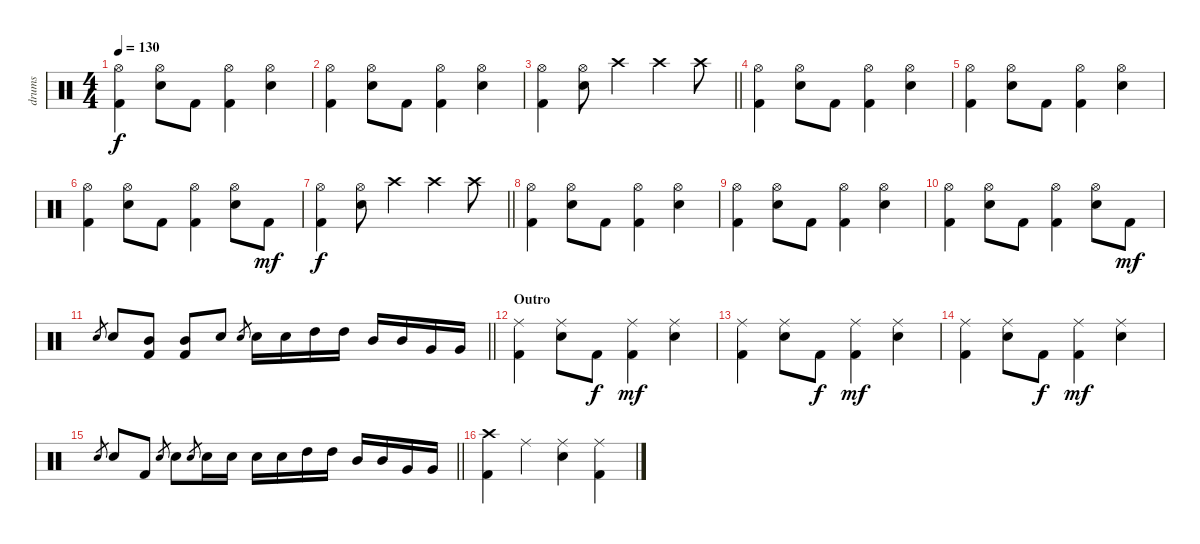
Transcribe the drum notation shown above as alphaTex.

\track ("drums" "drums") {instrument percussion}
\staff {score}
\articulation defaults
\ts (4 4)
\tempo 130
\clef neutral
\ks c
("Hi-Hat (open)" "Kick (hit) 2").4{dy f} ("Hi-Hat (open)" "Snare (hit) 2").8 "Kick (hit) 2".8 ("Hi-Hat (open)" "Kick (hit) 2").4 ("Hi-Hat (open)" "Snare (hit) 2").4 |
("Hi-Hat (open)" "Kick (hit) 2").4 ("Hi-Hat (open)" "Snare (hit) 2").8 "Kick (hit) 2".8 ("Hi-Hat (open)" "Kick (hit) 2").4 ("Hi-Hat (open)" "Snare (hit) 2").4 |
\barLineRight lightlight
("Hi-Hat (open)" "Kick (hit) 2").4 ("Hi-Hat (open)" "Snare (hit) 2").8 "Crash high (hit)".4 "Crash high (hit)".4 "Crash high (hit)".8 |
("Hi-Hat (open)" "Kick (hit) 2").4 ("Hi-Hat (open)" "Snare (hit) 2").8 "Kick (hit) 2".8 ("Hi-Hat (open)" "Kick (hit) 2").4 ("Hi-Hat (open)" "Snare (hit) 2").4 |
("Hi-Hat (open)" "Kick (hit) 2").4 ("Hi-Hat (open)" "Snare (hit) 2").8 "Kick (hit) 2".8 ("Hi-Hat (open)" "Kick (hit) 2").4 ("Hi-Hat (open)" "Snare (hit) 2").4 |
("Hi-Hat (open)" "Kick (hit) 2").4 ("Hi-Hat (open)" "Snare (hit) 2").8 "Kick (hit) 2".8 ("Hi-Hat (open)" "Kick (hit) 2").4 ("Hi-Hat (open)" "Snare (hit) 2").8 "Kick (hit) 2".8{dy mf} |
\barLineRight lightlight
("Hi-Hat (open)" "Kick (hit) 2").4{dy f} ("Hi-Hat (open)" "Snare (hit) 2").8 "Crash high (hit)".4 "Crash high (hit)".4 "Crash high (hit)".8 |
("Hi-Hat (open)" "Kick (hit) 2").4 ("Hi-Hat (open)" "Snare (hit) 2").8 "Kick (hit) 2".8 ("Hi-Hat (open)" "Kick (hit) 2").4 ("Hi-Hat (open)" "Snare (hit) 2").4 |
("Hi-Hat (open)" "Kick (hit) 2").4 ("Hi-Hat (open)" "Snare (hit) 2").8 "Kick (hit) 2".8 ("Hi-Hat (open)" "Kick (hit) 2").4 ("Hi-Hat (open)" "Snare (hit) 2").4 |
("Hi-Hat (open)" "Kick (hit) 2").4 ("Hi-Hat (open)" "Snare (hit) 2").8 "Kick (hit) 2".8 ("Hi-Hat (open)" "Kick (hit) 2").4 ("Hi-Hat (open)" "Snare (hit) 2").8 "Kick (hit) 2".8{dy mf} |
\barLineRight lightlight "Snare (hit) 2".8{gr} "Snare (hit) 2".8
("Kick (hit) 2" "Mid Tom (hit)").8 ("Kick (hit) 2" "Mid Tom (hit)").8 "Snare (hit) 2".8 "Snare (hit) 2".8{gr} "Snare (hit) 2".16 "Snare (hit) 2".16 "High Tom (hit)".16 "High Tom (hit)".16 "Mid Tom (hit)".16 "Mid Tom (hit)".16 "Very Low Tom (hit)".16 "Very Low Tom (hit)".16 |
\section ("" "Outro")
("Ride (middle)" "Kick (hit) 2").4 ("Ride (middle)" "Snare (hit) 2").8 "Kick (hit) 2".8{dy f} ("Ride (middle)" "Kick (hit) 2").4{dy mf} ("Ride (middle)" "Snare (hit) 2").4 |
("Ride (middle)" "Kick (hit) 2").4 ("Ride (middle)" "Snare (hit) 2").8 "Kick (hit) 2".8{dy f} ("Ride (middle)" "Kick (hit) 2").4{dy mf} ("Ride (middle)" "Snare (hit) 2").4 |
("Ride (middle)" "Kick (hit) 2").4 ("Ride (middle)" "Snare (hit) 2").8 "Kick (hit) 2".8{dy f} ("Ride (middle)" "Kick (hit) 2").4{dy mf} ("Ride (middle)" "Snare (hit) 2").4 |
\barLineRight lightlight "Snare (hit) 2".8{gr} "Snare (hit) 2".8 "Kick (hit) 2".8 "Snare (hit) 2".8{gr} "Snare (hit) 2".8 "Snare (hit) 2".8{gr} "Snare (hit) 2".16 "Snare (hit) 2".16 "Snare (hit) 2".16 "Snare (hit) 2".16 "High Tom (hit)".16 "High Tom (hit)".16 "Mid Tom (hit)".16 "Mid Tom (hit)".16 "Very Low Tom (hit)".16 "Very Low Tom (hit)".16
|
("Crash high (hit)" "Kick (hit) 2").4 "Ride (middle)".4 ("Ride (middle)" "Snare (hit) 2").4 ("Ride (middle)" "Kick (hit) 2").4
